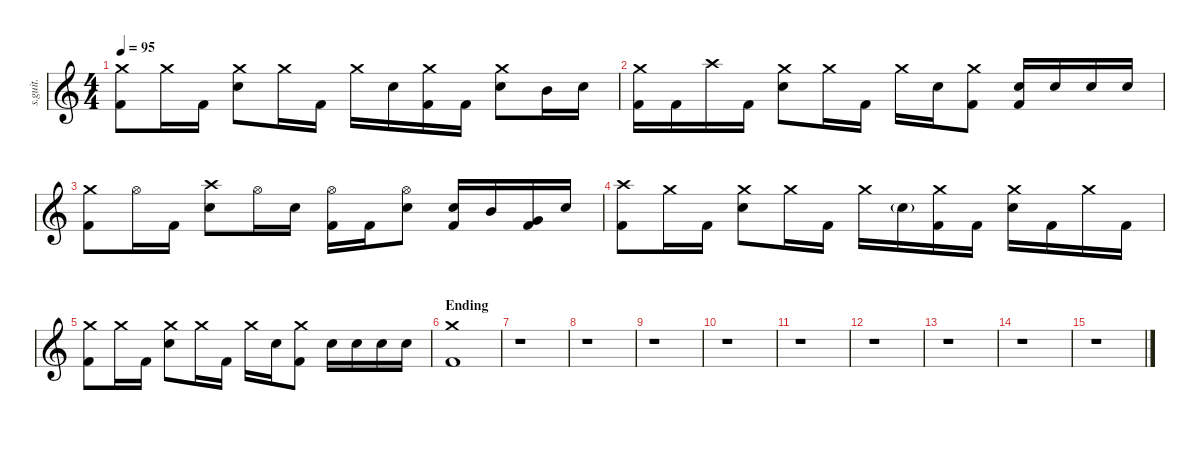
\defaultSystemsLayout 4
\hideDynamics
\bracketExtendMode nobrackets
\track ("Josh Freese" "s.guit.") {instrument percussion}
\staff {score}
\articulation defaults
\ts (4 4)
\tempo 95
\clef g2
\ks c
("Crash medium (hit)" "Kick (hit) 2").8{lyrics (0 "") lyrics (1 "") lyrics (2 "") lyrics (3 "") lyrics (4 "") dy f} "Crash medium (hit)".16{lyrics (0 "") lyrics (1 "") lyrics (2 "") lyrics (3 "") lyrics (4 "")} "Kick (hit) 2".16{lyrics (0 "") lyrics (1 "") lyrics (2 "") lyrics (3 "") lyrics (4 "")} ("Crash medium (hit)" "Snare (hit) 2").8{lyrics (0 "") lyrics (1 "") lyrics (2 "") lyrics (3 "") lyrics (4 "")} "Crash medium (hit)".16{lyrics (0 "") lyrics (1 "") lyrics (2 "") lyrics (3 "") lyrics (4 "")} "Kick (hit) 2".16{lyrics (0 "") lyrics (1 "") lyrics (2 "") lyrics (3 "") lyrics (4 "")} "Crash medium (hit)".16{lyrics (0 "") lyrics (1 "") lyrics (2 "") lyrics (3 "") lyrics (4 "")} "Snare (hit) 2".16{lyrics (0 "") lyrics (1 "") lyrics (2 "") lyrics (3 "") lyrics (4 "")} ("Crash medium (hit)" "Kick (hit) 2").16{lyrics (0 "") lyrics (1 "") lyrics (2 "") lyrics (3 "") lyrics (4 "")} "Kick (hit) 2".16{lyrics (0 "") lyrics (1 "") lyrics (2 "") lyrics (3 "") lyrics (4 "")} ("Crash medium (hit)" "Snare (hit) 2").8{lyrics (0 "") lyrics (1 "") lyrics (2 "") lyrics (3 "") lyrics (4 "")} "Mid Tom (hit)".16{lyrics (0 "") lyrics (1 "") lyrics (2 "") lyrics (3 "") lyrics (4 "")} "Snare (hit) 2".16{lyrics (0 "") lyrics (1 "") lyrics (2 "") lyrics (3 "") lyrics (4 "")} |
("Crash medium (hit)" "Kick (hit) 2").16{lyrics (0 "") lyrics (1 "") lyrics (2 "") lyrics (3 "") lyrics (4 "")} "Kick (hit) 2".16{lyrics (0 "") lyrics (1 "") lyrics (2 "") lyrics (3 "") lyrics (4 "")} "Crash high (hit)".16{lyrics (0 "") lyrics (1 "") lyrics (2 "") lyrics (3 "") lyrics (4 "")} "Kick (hit) 2".16{lyrics (0 "") lyrics (1 "") lyrics (2 "") lyrics (3 "") lyrics (4 "")} ("Crash medium (hit)" "Snare (hit) 2").8{lyrics (0 "") lyrics (1 "") lyrics (2 "") lyrics (3 "") lyrics (4 "")} "Crash medium (hit)".16{lyrics (0 "") lyrics (1 "") lyrics (2 "") lyrics (3 "") lyrics (4 "")} "Kick (hit) 2".16{lyrics (0 "") lyrics (1 "") lyrics (2 "") lyrics (3 "") lyrics (4 "")} "Crash medium (hit)".16{lyrics (0 "") lyrics (1 "") lyrics (2 "") lyrics (3 "") lyrics (4 "")} "Snare (hit) 2".16{lyrics (0 "") lyrics (1 "") lyrics (2 "") lyrics (3 "") lyrics (4 "")} ("Crash medium (hit)" "Kick (hit) 2").8{lyrics (0 "") lyrics (1 "") lyrics (2 "") lyrics (3 "") lyrics (4 "")} ("Snare (hit) 2" "Kick (hit) 2").16{lyrics (0 "") lyrics (1 "") lyrics (2 "") lyrics (3 "") lyrics (4 "")} "Snare (hit) 2".16{lyrics (0 "") lyrics (1 "") lyrics (2 "") lyrics (3 "") lyrics (4 "")} "Snare (hit) 2".16{lyrics (0 "") lyrics (1 "") lyrics (2 "") lyrics (3 "") lyrics (4 "")} "Snare (hit) 2".16{lyrics (0 "") lyrics (1 "") lyrics (2 "") lyrics (3 "") lyrics (4 "")} |
("Crash medium (hit)" "Kick (hit) 2").8{lyrics (0 "") lyrics (1 "") lyrics (2 "") lyrics (3 "") lyrics (4 "")} "Hi-Hat (open)".16{lyrics (0 "") lyrics (1 "") lyrics (2 "") lyrics (3 "") lyrics (4 "")} "Kick (hit) 2".16{lyrics (0 "") lyrics (1 "") lyrics (2 "") lyrics (3 "") lyrics (4 "")} ("Crash high (hit)" "Snare (hit) 2").8{lyrics (0 "") lyrics (1 "") lyrics (2 "") lyrics (3 "") lyrics (4 "")} "Hi-Hat (open)".16{lyrics (0 "") lyrics (1 "") lyrics (2 "") lyrics (3 "") lyrics (4 "")} "Snare (hit) 2".16{lyrics (0 "") lyrics (1 "") lyrics (2 "") lyrics (3 "") lyrics (4 "")} ("Hi-Hat (open)" "Kick (hit) 2").16{lyrics (0 "") lyrics (1 "") lyrics (2 "") lyrics (3 "") lyrics (4 "")} "Kick (hit) 2".16{lyrics (0 "") lyrics (1 "") lyrics (2 "") lyrics (3 "") lyrics (4 "")} ("Hi-Hat (open)" "Snare (hit) 2").8{lyrics (0 "") lyrics (1 "") lyrics (2 "") lyrics (3 "") lyrics (4 "")} ("Snare (hit) 2" "Kick (hit) 2").16{lyrics (0 "") lyrics (1 "") lyrics (2 "") lyrics (3 "") lyrics (4 "")} "Mid Tom (hit)".16{lyrics (0 "") lyrics (1 "") lyrics (2 "") lyrics (3 "") lyrics (4 "")} ("Very Low Tom (hit)" "Kick (hit) 2").16{lyrics (0 "") lyrics (1 "") lyrics (2 "") lyrics (3 "") lyrics (4 "")} "Snare (hit) 2".16{lyrics (0 "") lyrics (1 "") lyrics (2 "") lyrics (3 "") lyrics (4 "")} |
("Crash high (hit)" "Kick (hit) 2").8{lyrics (0 "") lyrics (1 "") lyrics (2 "") lyrics (3 "") lyrics (4 "")} "Crash medium (hit)".16{lyrics (0 "") lyrics (1 "") lyrics (2 "") lyrics (3 "") lyrics (4 "")} "Kick (hit) 2".16{lyrics (0 "") lyrics (1 "") lyrics (2 "") lyrics (3 "") lyrics (4 "")} ("Crash medium (hit)" "Snare (hit) 2").8{lyrics (0 "") lyrics (1 "") lyrics (2 "") lyrics (3 "") lyrics (4 "")} "Crash medium (hit)".16{lyrics (0 "") lyrics (1 "") lyrics (2 "") lyrics (3 "") lyrics (4 "")} "Kick (hit) 2".16{lyrics (0 "") lyrics (1 "") lyrics (2 "") lyrics (3 "") lyrics (4 "")} "Crash medium (hit)".16{lyrics (0 "") lyrics (1 "") lyrics (2 "") lyrics (3 "") lyrics (4 "")} "Snare (hit) 2"{g}.16{lyrics (0 "") lyrics (1 "") lyrics (2 "") lyrics (3 "") lyrics (4 "")} ("Crash medium (hit)" "Kick (hit) 2").16{lyrics (0 "") lyrics (1 "") lyrics (2 "") lyrics (3 "") lyrics (4 "")} "Kick (hit) 2".16{lyrics (0 "") lyrics (1 "") lyrics (2 "") lyrics (3 "") lyrics (4 "")} ("Crash medium (hit)" "Snare (hit) 2").16{lyrics (0 "") lyrics (1 "") lyrics (2 "") lyrics (3 "") lyrics (4 "")} "Kick (hit) 2".16{lyrics (0 "") lyrics (1 "") lyrics (2 "") lyrics (3 "") lyrics (4 "")} "Crash medium (hit)".16{lyrics (0 "") lyrics (1 "") lyrics (2 "") lyrics (3 "") lyrics (4 "")} "Kick (hit) 2".16{lyrics (0 "") lyrics (1 "") lyrics (2 "") lyrics (3 "") lyrics (4 "")} |
("Crash medium (hit)" "Kick (hit) 2").8{lyrics (0 "") lyrics (1 "") lyrics (2 "") lyrics (3 "") lyrics (4 "")} "Crash medium (hit)".16{lyrics (0 "") lyrics (1 "") lyrics (2 "") lyrics (3 "") lyrics (4 "")} "Kick (hit) 2".16{lyrics (0 "") lyrics (1 "") lyrics (2 "") lyrics (3 "") lyrics (4 "")} ("Crash medium (hit)" "Snare (hit) 2").8{lyrics (0 "") lyrics (1 "") lyrics (2 "") lyrics (3 "") lyrics (4 "")} "Crash medium (hit)".16{lyrics (0 "") lyrics (1 "") lyrics (2 "") lyrics (3 "") lyrics (4 "")} "Kick (hit) 2".16{lyrics (0 "") lyrics (1 "") lyrics (2 "") lyrics (3 "") lyrics (4 "")} "Crash medium (hit)".16{lyrics (0 "") lyrics (1 "") lyrics (2 "") lyrics (3 "") lyrics (4 "")} "Snare (hit) 2".16{lyrics (0 "") lyrics (1 "") lyrics (2 "") lyrics (3 "") lyrics (4 "")} ("Crash medium (hit)" "Kick (hit) 2").8{lyrics (0 "") lyrics (1 "") lyrics (2 "") lyrics (3 "") lyrics (4 "")} "Snare (hit) 2".16{lyrics (0 "") lyrics (1 "") lyrics (2 "") lyrics (3 "") lyrics (4 "")} "Snare (hit) 2".16{lyrics (0 "") lyrics (1 "") lyrics (2 "") lyrics (3 "") lyrics (4 "")} "Snare (hit) 2".16{lyrics (0 "") lyrics (1 "") lyrics (2 "") lyrics (3 "") lyrics (4 "")} "Snare (hit) 2".16{lyrics (0 "") lyrics (1 "") lyrics (2 "") lyrics (3 "") lyrics (4 "")} |
\section ("" "Ending")
("Crash medium (hit)" "Kick (hit) 2").1{lyrics (0 "") lyrics (1 "") lyrics (2 "") lyrics (3 "") lyrics (4 "")} |
r.1 |
r.1 |
r.1 |
r.1 |
r.1 |
r.1 |
r.1 |
r.1 |
r.1
